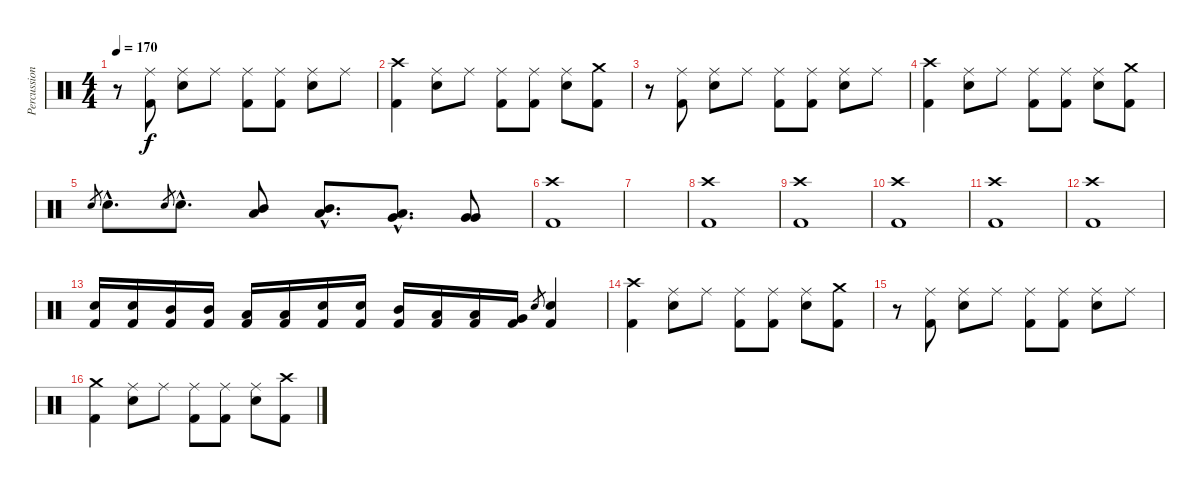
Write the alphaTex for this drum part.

\track ("Percussion" "Percussion") {instrument percussion}
\staff {score}
\articulation defaults
\ts (4 4)
\tempo 170
\clef neutral
\ks c
r.8{dy f} ("Kick (hit) 2" "Ride (middle)").8 ("Electric Snare (hit)" "Ride (middle)").8 "Ride (middle)".8 ("Kick (hit) 2" "Ride (middle)").8 ("Kick (hit) 2" "Ride (middle)").8 ("Electric Snare (hit)" "Ride (middle)").8 "Ride (middle)".8 |
("Kick (hit) 2" "Crash high (hit)").4 ("Electric Snare (hit)" "Ride (middle)").8 "Ride (middle)".8 ("Kick (hit) 2" "Ride (middle)").8 ("Kick (hit) 2" "Ride (middle)").8 ("Electric Snare (hit)" "Ride (middle)").8 ("Kick (hit) 2" "Crash medium (hit)").8 |
r.8 ("Kick (hit) 2" "Ride (middle)").8 ("Electric Snare (hit)" "Ride (middle)").8 "Ride (middle)".8 ("Kick (hit) 2" "Ride (middle)").8 ("Kick (hit) 2" "Ride (middle)").8 ("Electric Snare (hit)" "Ride (middle)").8 "Ride (middle)".8 |
("Kick (hit) 2" "Crash high (hit)").4 ("Electric Snare (hit)" "Ride (middle)").8 "Ride (middle)".8 ("Kick (hit) 2" "Ride (middle)").8 ("Kick (hit) 2" "Ride (middle)").8 ("Electric Snare (hit)" "Ride (middle)").8 ("Kick (hit) 2" "Crash medium (hit)").8 |
"Electric Snare (hit)".8{gr} "Electric Snare (hit)"{hac}.8{d} "Electric Snare (hit)".8{gr} "Electric Snare (hit)"{hac}.8{d} ("Mid Tom (hit)" "Low Tom (hit)").8 ("Mid Tom (hit)"{hac} "Low Tom (hit)"{hac}).8{d} ("Low Tom (hit)"{hac} "Very Low Tom (hit)"{hac}).8{d} ("Very Low Tom (hit)" "Very Low Tom (hit)").8 |
("Kick (hit) 2" "Crash high (hit)").1 |
|
("Kick (hit) 2" "Crash high (hit)").1 |
("Kick (hit) 2" "Crash high (hit)").1 |
("Kick (hit) 2" "Crash high (hit)").1 |
("Kick (hit) 2" "Crash high (hit)").1 |
("Kick (hit) 2" "Crash high (hit)").1 |
("Electric Snare (hit)" "Kick (hit) 2").16 ("Electric Snare (hit)" "Kick (hit) 2").16 ("Mid Tom (hit)" "Kick (hit) 2").16 ("Mid Tom (hit)" "Kick (hit) 2").16 ("Low Tom (hit)" "Kick (hit) 2").16 ("Low Tom (hit)" "Kick (hit) 2").16 ("Electric Snare (hit)" "Kick (hit) 2").16 ("Electric Snare (hit)" "Kick (hit) 2").16 ("Mid Tom (hit)" "Kick (hit) 2").16 ("Low Tom (hit)" "Kick (hit) 2").16 ("Low Tom (hit)" "Kick (hit) 2").16 ("Very Low Tom (hit)" "Kick (hit) 2").16 "Electric Snare (hit)".8{gr} ("Electric Snare (hit)" "Kick (hit) 2").4 |
("Kick (hit) 2" "Crash high (hit)").4 ("Electric Snare (hit)" "Ride (middle)").8 "Ride (middle)".8 ("Kick (hit) 2" "Ride (middle)").8 ("Kick (hit) 2" "Ride (middle)").8 ("Electric Snare (hit)" "Ride (middle)").8 ("Kick (hit) 2" "Crash medium (hit)").8 |
r.8 ("Kick (hit) 2" "Ride (middle)").8 ("Electric Snare (hit)" "Ride (middle)").8 "Ride (middle)".8 ("Kick (hit) 2" "Ride (middle)").8 ("Kick (hit) 2" "Ride (middle)").8 ("Electric Snare (hit)" "Ride (middle)").8 "Ride (middle)".8 |
("Kick (hit) 2" "Crash medium (hit)").4 ("Electric Snare (hit)" "Ride (middle)").8 "Ride (middle)".8 ("Kick (hit) 2" "Ride (middle)").8 ("Kick (hit) 2" "Ride (middle)").8 ("Electric Snare (hit)" "Ride (middle)").8 ("Kick (hit) 2" "Crash high (hit)").8
